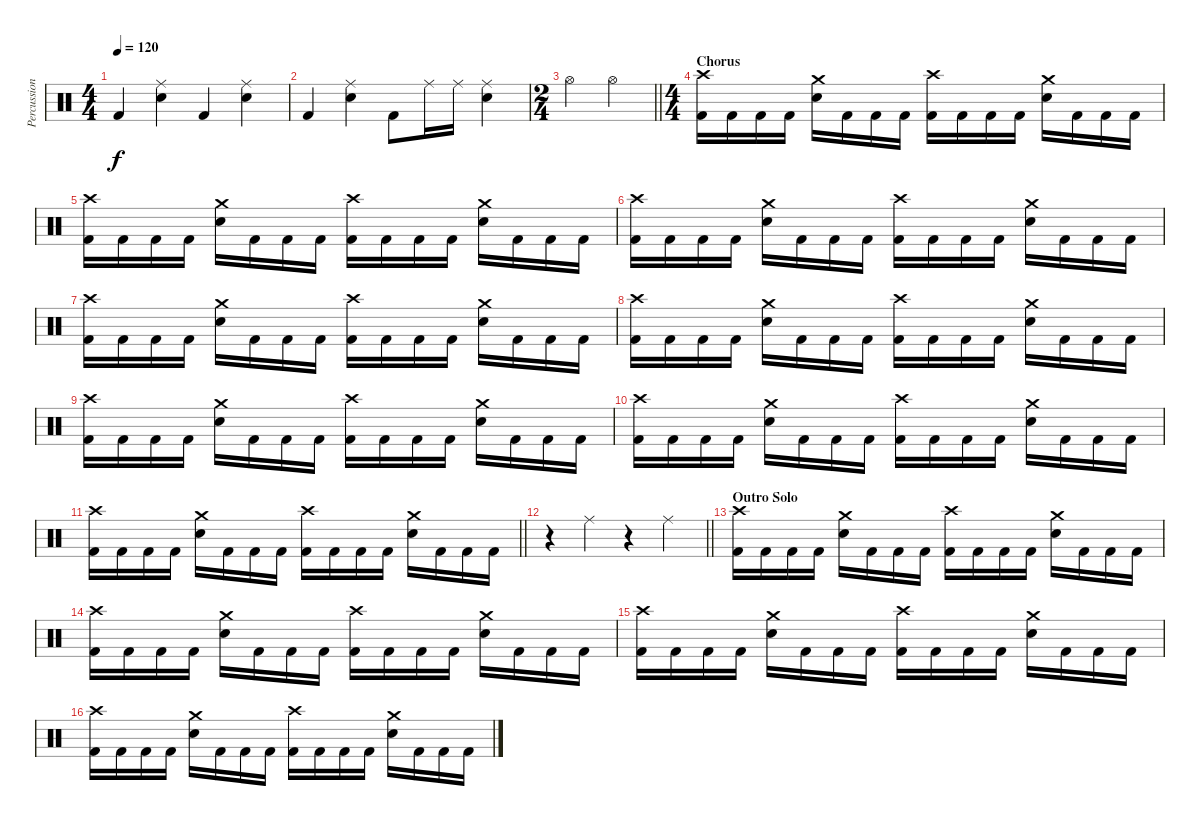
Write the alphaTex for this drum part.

\track ("Percussion" "Percussion") {instrument percussion}
\staff {score}
\articulation defaults
\ts (4 4)
\tempo 120
\clef neutral
\ks c "Kick (hit) 2".4{dy f}
("Ride (middle)" "Electric Snare (hit)").4 "Kick (hit) 2".4 ("Ride (middle)" "Electric Snare (hit)").4 |
"Kick (hit) 2".4 ("Ride (middle)" "Electric Snare (hit)").4 "Kick (hit) 2".8 "Ride (middle)".16 "Ride (middle)".16 ("Ride (middle)" "Electric Snare (hit)").4 |
\ts (2 4)
\barLineRight lightlight "Hi-Hat (open)".4 "Hi-Hat (open)".4
|
\ts (4 4)
\section ("" "Chorus")
("Crash high (hit)" "Kick (hit) 2").16 "Kick (hit) 2".16 "Kick (hit) 2".16 "Kick (hit) 2".16 ("Crash medium (hit)" "Electric Snare (hit)").16 "Kick (hit) 2".16 "Kick (hit) 2".16 "Kick (hit) 2".16 ("Crash high (hit)" "Kick (hit) 2").16 "Kick (hit) 2".16 "Kick (hit) 2".16 "Kick (hit) 2".16 ("Crash medium (hit)" "Electric Snare (hit)").16 "Kick (hit) 2".16 "Kick (hit) 2".16 "Kick (hit) 2".16 |
("Crash high (hit)" "Kick (hit) 2").16 "Kick (hit) 2".16 "Kick (hit) 2".16 "Kick (hit) 2".16 ("Crash medium (hit)" "Electric Snare (hit)").16 "Kick (hit) 2".16 "Kick (hit) 2".16 "Kick (hit) 2".16 ("Crash high (hit)" "Kick (hit) 2").16 "Kick (hit) 2".16 "Kick (hit) 2".16 "Kick (hit) 2".16 ("Crash medium (hit)" "Electric Snare (hit)").16 "Kick (hit) 2".16 "Kick (hit) 2".16 "Kick (hit) 2".16 |
("Crash high (hit)" "Kick (hit) 2").16 "Kick (hit) 2".16 "Kick (hit) 2".16 "Kick (hit) 2".16 ("Crash medium (hit)" "Electric Snare (hit)").16 "Kick (hit) 2".16 "Kick (hit) 2".16 "Kick (hit) 2".16 ("Crash high (hit)" "Kick (hit) 2").16 "Kick (hit) 2".16 "Kick (hit) 2".16 "Kick (hit) 2".16 ("Crash medium (hit)" "Electric Snare (hit)").16 "Kick (hit) 2".16 "Kick (hit) 2".16 "Kick (hit) 2".16 |
("Crash high (hit)" "Kick (hit) 2").16 "Kick (hit) 2".16 "Kick (hit) 2".16 "Kick (hit) 2".16 ("Crash medium (hit)" "Electric Snare (hit)").16 "Kick (hit) 2".16 "Kick (hit) 2".16 "Kick (hit) 2".16 ("Crash high (hit)" "Kick (hit) 2").16 "Kick (hit) 2".16 "Kick (hit) 2".16 "Kick (hit) 2".16 ("Crash medium (hit)" "Electric Snare (hit)").16 "Kick (hit) 2".16 "Kick (hit) 2".16 "Kick (hit) 2".16 |
("Crash high (hit)" "Kick (hit) 2").16 "Kick (hit) 2".16 "Kick (hit) 2".16 "Kick (hit) 2".16 ("Crash medium (hit)" "Electric Snare (hit)").16 "Kick (hit) 2".16 "Kick (hit) 2".16 "Kick (hit) 2".16 ("Crash high (hit)" "Kick (hit) 2").16 "Kick (hit) 2".16 "Kick (hit) 2".16 "Kick (hit) 2".16 ("Crash medium (hit)" "Electric Snare (hit)").16 "Kick (hit) 2".16 "Kick (hit) 2".16 "Kick (hit) 2".16 |
("Crash high (hit)" "Kick (hit) 2").16 "Kick (hit) 2".16 "Kick (hit) 2".16 "Kick (hit) 2".16 ("Crash medium (hit)" "Electric Snare (hit)").16 "Kick (hit) 2".16 "Kick (hit) 2".16 "Kick (hit) 2".16 ("Crash high (hit)" "Kick (hit) 2").16 "Kick (hit) 2".16 "Kick (hit) 2".16 "Kick (hit) 2".16 ("Crash medium (hit)" "Electric Snare (hit)").16 "Kick (hit) 2".16 "Kick (hit) 2".16 "Kick (hit) 2".16 |
("Crash high (hit)" "Kick (hit) 2").16 "Kick (hit) 2".16 "Kick (hit) 2".16 "Kick (hit) 2".16 ("Crash medium (hit)" "Electric Snare (hit)").16 "Kick (hit) 2".16 "Kick (hit) 2".16 "Kick (hit) 2".16 ("Crash high (hit)" "Kick (hit) 2").16 "Kick (hit) 2".16 "Kick (hit) 2".16 "Kick (hit) 2".16 ("Crash medium (hit)" "Electric Snare (hit)").16 "Kick (hit) 2".16 "Kick (hit) 2".16 "Kick (hit) 2".16 |
\barLineRight lightlight
("Crash high (hit)" "Kick (hit) 2").16 "Kick (hit) 2".16 "Kick (hit) 2".16 "Kick (hit) 2".16 ("Crash medium (hit)" "Electric Snare (hit)").16 "Kick (hit) 2".16 "Kick (hit) 2".16 "Kick (hit) 2".16 ("Crash high (hit)" "Kick (hit) 2").16 "Kick (hit) 2".16 "Kick (hit) 2".16 "Kick (hit) 2".16 ("Crash medium (hit)" "Electric Snare (hit)").16 "Kick (hit) 2".16 "Kick (hit) 2".16 "Kick (hit) 2".16 |
\barLineRight lightlight
r.4 "Ride (middle)".4 r.4 "Ride (middle)".4 |
\section ("" "Outro Solo")
("Crash high (hit)" "Kick (hit) 2").16 "Kick (hit) 2".16 "Kick (hit) 2".16 "Kick (hit) 2".16 ("Crash medium (hit)" "Electric Snare (hit)").16 "Kick (hit) 2".16 "Kick (hit) 2".16 "Kick (hit) 2".16 ("Crash high (hit)" "Kick (hit) 2").16 "Kick (hit) 2".16 "Kick (hit) 2".16 "Kick (hit) 2".16 ("Crash medium (hit)" "Electric Snare (hit)").16 "Kick (hit) 2".16 "Kick (hit) 2".16 "Kick (hit) 2".16 |
("Crash high (hit)" "Kick (hit) 2").16 "Kick (hit) 2".16 "Kick (hit) 2".16 "Kick (hit) 2".16 ("Crash medium (hit)" "Electric Snare (hit)").16 "Kick (hit) 2".16 "Kick (hit) 2".16 "Kick (hit) 2".16 ("Crash high (hit)" "Kick (hit) 2").16 "Kick (hit) 2".16 "Kick (hit) 2".16 "Kick (hit) 2".16 ("Crash medium (hit)" "Electric Snare (hit)").16 "Kick (hit) 2".16 "Kick (hit) 2".16 "Kick (hit) 2".16 |
("Crash high (hit)" "Kick (hit) 2").16 "Kick (hit) 2".16 "Kick (hit) 2".16 "Kick (hit) 2".16 ("Crash medium (hit)" "Electric Snare (hit)").16 "Kick (hit) 2".16 "Kick (hit) 2".16 "Kick (hit) 2".16 ("Crash high (hit)" "Kick (hit) 2").16 "Kick (hit) 2".16 "Kick (hit) 2".16 "Kick (hit) 2".16 ("Crash medium (hit)" "Electric Snare (hit)").16 "Kick (hit) 2".16 "Kick (hit) 2".16 "Kick (hit) 2".16 |
("Crash high (hit)" "Kick (hit) 2").16 "Kick (hit) 2".16 "Kick (hit) 2".16 "Kick (hit) 2".16 ("Crash medium (hit)" "Electric Snare (hit)").16 "Kick (hit) 2".16 "Kick (hit) 2".16 "Kick (hit) 2".16 ("Crash high (hit)" "Kick (hit) 2").16 "Kick (hit) 2".16 "Kick (hit) 2".16 "Kick (hit) 2".16 ("Crash medium (hit)" "Electric Snare (hit)").16 "Kick (hit) 2".16 "Kick (hit) 2".16 "Kick (hit) 2".16
